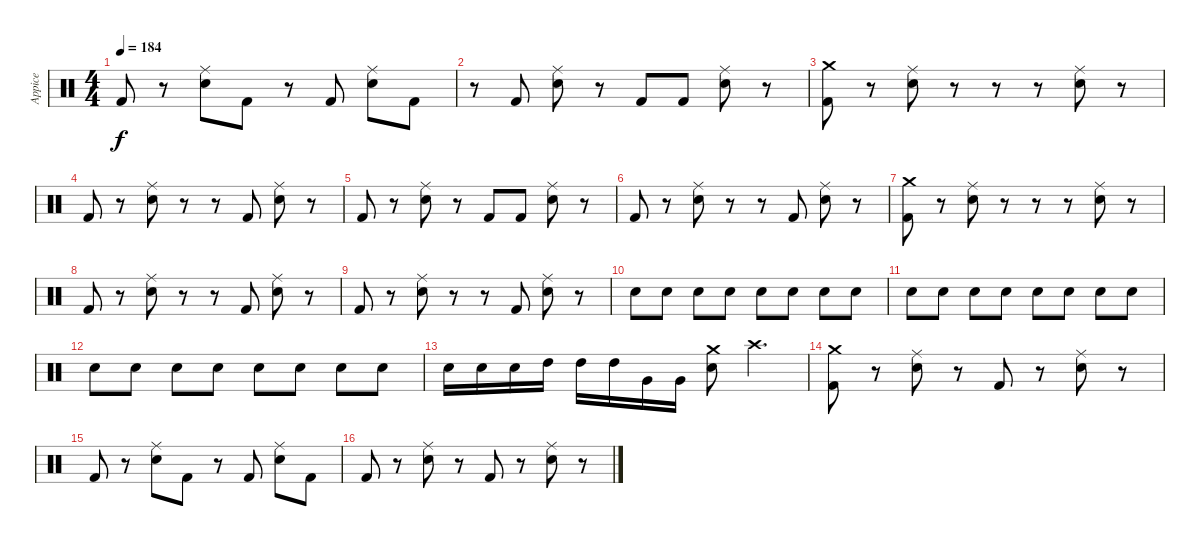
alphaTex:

\track ("Appice" "Appice") {instrument percussion}
\staff {score}
\articulation defaults
\ts (4 4)
\tempo 184
\clef neutral
\ks c "Kick (hit) 2".8{dy f}
r.8 ("Ride (middle)" "Snare (hit) 2").8 "Kick (hit) 2".8 r.8 "Kick (hit) 2".8 ("Ride (middle)" "Snare (hit) 2").8 "Kick (hit) 2".8 |
r.8 "Kick (hit) 2".8 ("Ride (middle)" "Snare (hit) 2").8 r.8 "Kick (hit) 2".8 "Kick (hit) 2".8 ("Ride (middle)" "Snare (hit) 2").8 r.8 |
("Crash medium (hit)" "Kick (hit) 2").8 r.8 ("Ride (middle)" "Snare (hit) 2").8 r.8 r.8 r.8 ("Ride (middle)" "Snare (hit) 2").8 r.8 |
"Kick (hit) 2".8 r.8 ("Ride (middle)" "Snare (hit) 2").8 r.8 r.8 "Kick (hit) 2".8 ("Ride (middle)" "Snare (hit) 2").8 r.8 |
"Kick (hit) 2".8 r.8 ("Ride (middle)" "Snare (hit) 2").8 r.8 "Kick (hit) 2".8 "Kick (hit) 2".8 ("Ride (middle)" "Snare (hit) 2").8 r.8 |
"Kick (hit) 2".8 r.8 ("Ride (middle)" "Snare (hit) 2").8 r.8 r.8 "Kick (hit) 2".8 ("Ride (middle)" "Snare (hit) 2").8 r.8 |
("Crash medium (hit)" "Kick (hit) 2").8 r.8 ("Ride (middle)" "Snare (hit) 2").8 r.8 r.8 r.8 ("Ride (middle)" "Snare (hit) 2").8 r.8 |
"Kick (hit) 2".8 r.8 ("Ride (middle)" "Snare (hit) 2").8 r.8 r.8 "Kick (hit) 2".8 ("Ride (middle)" "Snare (hit) 2").8 r.8 |
"Kick (hit) 2".8 r.8 ("Ride (middle)" "Snare (hit) 2").8 r.8 r.8 "Kick (hit) 2".8 ("Ride (middle)" "Snare (hit) 2").8 r.8 |
"Snare (hit) 2".8 "Snare (hit) 2".8 "Snare (hit) 2".8 "Snare (hit) 2".8 "Snare (hit) 2".8 "Snare (hit) 2".8 "Snare (hit) 2".8 "Snare (hit) 2".8 |
"Snare (hit) 2".8 "Snare (hit) 2".8 "Snare (hit) 2".8 "Snare (hit) 2".8 "Snare (hit) 2".8 "Snare (hit) 2".8 "Snare (hit) 2".8 "Snare (hit) 2".8 |
"Snare (hit) 2".8 "Snare (hit) 2".8 "Snare (hit) 2".8 "Snare (hit) 2".8 "Snare (hit) 2".8 "Snare (hit) 2".8 "Snare (hit) 2".8 "Snare (hit) 2".8 |
"Snare (hit) 2".16 "Snare (hit) 2".16 "Snare (hit) 2".16 "High Tom (hit)".16 "High Tom (hit)".16 "High Tom (hit)".16 "Very Low Tom (hit)".16 "Very Low Tom (hit)".16 ("Crash medium (hit)" "Snare (hit) 2").8 "Crash high (hit)".4{d} |
("Crash medium (hit)" "Kick (hit) 2").8 r.8 ("Ride (middle)" "Snare (hit) 2").8 r.8 "Kick (hit) 2".8 r.8 ("Ride (middle)" "Snare (hit) 2").8 r.8 |
"Kick (hit) 2".8 r.8 ("Ride (middle)" "Snare (hit) 2").8 "Kick (hit) 2".8 r.8 "Kick (hit) 2".8 ("Ride (middle)" "Snare (hit) 2").8 "Kick (hit) 2".8 |
"Kick (hit) 2".8 r.8 ("Ride (middle)" "Snare (hit) 2").8 r.8 "Kick (hit) 2".8 r.8 ("Ride (middle)" "Snare (hit) 2").8 r.8
